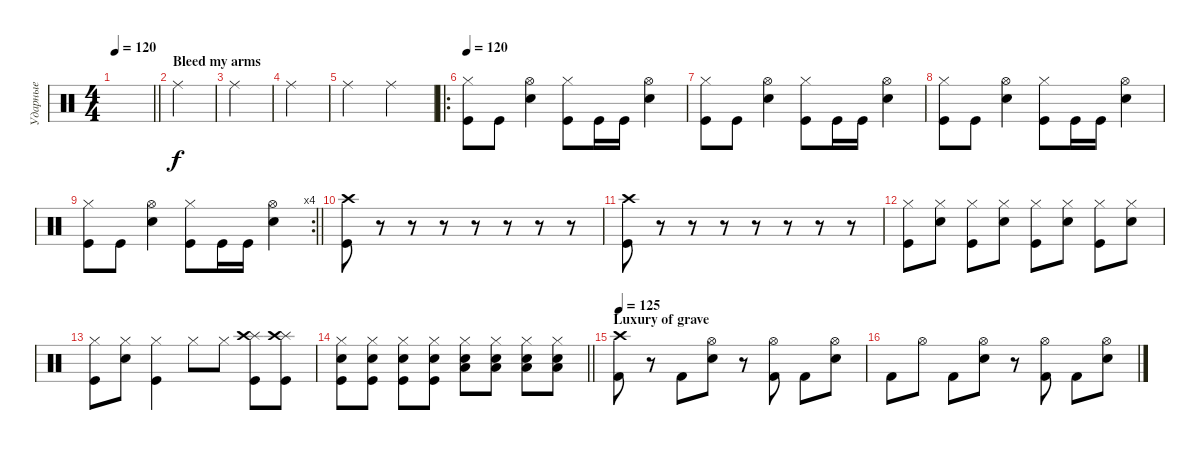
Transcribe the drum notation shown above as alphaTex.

\track ("Ударные" "Ударные") {instrument percussion}
\staff {score}
\articulation defaults
\ts (4 4)
\tempo 120
\clef neutral
\barLineRight lightlight
\ks c
|
\section ("" "Bleed my arms")
"Ride (middle)".4 |
"Ride (middle)".4 |
"Ride (middle)".4 |
"Ride (middle)".2 "Ride (middle)".2 |
\ro
\tempo 120
("Hi-Hat (closed)" "Kick (hit)").8 "Kick (hit)".8 ("Hi-Hat (open)" "Snare (hit) 2").4 ("Hi-Hat (closed)" "Kick (hit)").8 "Kick (hit)".16 "Kick (hit)".16 ("Hi-Hat (open)" "Snare (hit) 2").4 |
("Hi-Hat (closed)" "Kick (hit)").8 "Kick (hit)".8 ("Hi-Hat (open)" "Snare (hit) 2").4 ("Hi-Hat (closed)" "Kick (hit)").8 "Kick (hit)".16 "Kick (hit)".16 ("Hi-Hat (open)" "Snare (hit) 2").4 |
("Hi-Hat (closed)" "Kick (hit)").8 "Kick (hit)".8 ("Hi-Hat (open)" "Snare (hit) 2").4 ("Hi-Hat (closed)" "Kick (hit)").8 "Kick (hit)".16 "Kick (hit)".16 ("Hi-Hat (open)" "Snare (hit) 2").4 |
\rc 4
\barLineRight lightlight
("Hi-Hat (closed)" "Kick (hit)").8 "Kick (hit)".8 ("Hi-Hat (open)" "Snare (hit) 2").4 ("Hi-Hat (closed)" "Kick (hit)").8 "Kick (hit)".16 "Kick (hit)".16 ("Hi-Hat (open)" "Snare (hit) 2").4 |
("Crash high (hit)" "Kick (hit)").8 r.8 r.8 r.8 r.8 r.8 r.8 r.8 |
("Crash high (hit)" "Kick (hit)").8 r.8 r.8 r.8 r.8 r.8 r.8 r.8 |
("Hi-Hat (closed)" "Kick (hit)").8 ("Hi-Hat (closed)" "Snare (hit) 2").8 ("Hi-Hat (closed)" "Kick (hit)").8 ("Hi-Hat (closed)" "Snare (hit) 2").8 ("Hi-Hat (closed)" "Kick (hit)").8 ("Hi-Hat (closed)" "Snare (hit) 2").8 ("Hi-Hat (closed)" "Kick (hit)").8 ("Hi-Hat (closed)" "Snare (hit) 2").8 |
("Hi-Hat (closed)" "Kick (hit)").8 ("Hi-Hat (closed)" "Snare (hit) 2").8 ("Hi-Hat (closed)" "Kick (hit)").4 "Hi-Hat (closed)".8 "Hi-Hat (closed)".8 ("Splash (hit)" "Crash high (hit)" "Kick (hit)").8 ("Splash (hit)" "Crash high (hit)" "Kick (hit)").8 |
\barLineRight lightlight
("Hi-Hat (closed)" "Snare (hit) 2" "Kick (hit)").8 ("Hi-Hat (closed)" "Snare (hit) 2" "Kick (hit)").8 ("Hi-Hat (closed)" "Snare (hit) 2" "Kick (hit)").8 ("Hi-Hat (closed)" "Snare (hit) 2" "Kick (hit)").8 ("Hi-Hat (closed)" "Snare (hit) 2" "Low Floor Tom (hit)").8 ("Hi-Hat (closed)" "Snare (hit) 2" "Low Floor Tom (hit)").8 ("Hi-Hat (closed)" "Snare (hit) 2" "Low Floor Tom (hit)").8 ("Hi-Hat (closed)" "Snare (hit) 2" "Low Floor Tom (hit)").8 |
\section ("" "Luxury of grave")
\tempo 125
("Crash high (hit)" "Kick (hit) 2").8 r.8 "Kick (hit) 2".8 ("Hi-Hat (open)" "Snare (hit) 2").8 r.8 ("Hi-Hat (open)" "Kick (hit) 2").8 "Kick (hit) 2".8 ("Hi-Hat (open)" "Snare (hit) 2").8 |
"Kick (hit) 2".8 "Hi-Hat (open)".8 "Kick (hit) 2".8 ("Hi-Hat (open)" "Snare (hit) 2").8 r.8 ("Hi-Hat (open)" "Kick (hit) 2").8 "Kick (hit) 2".8 ("Hi-Hat (open)" "Snare (hit) 2").8
